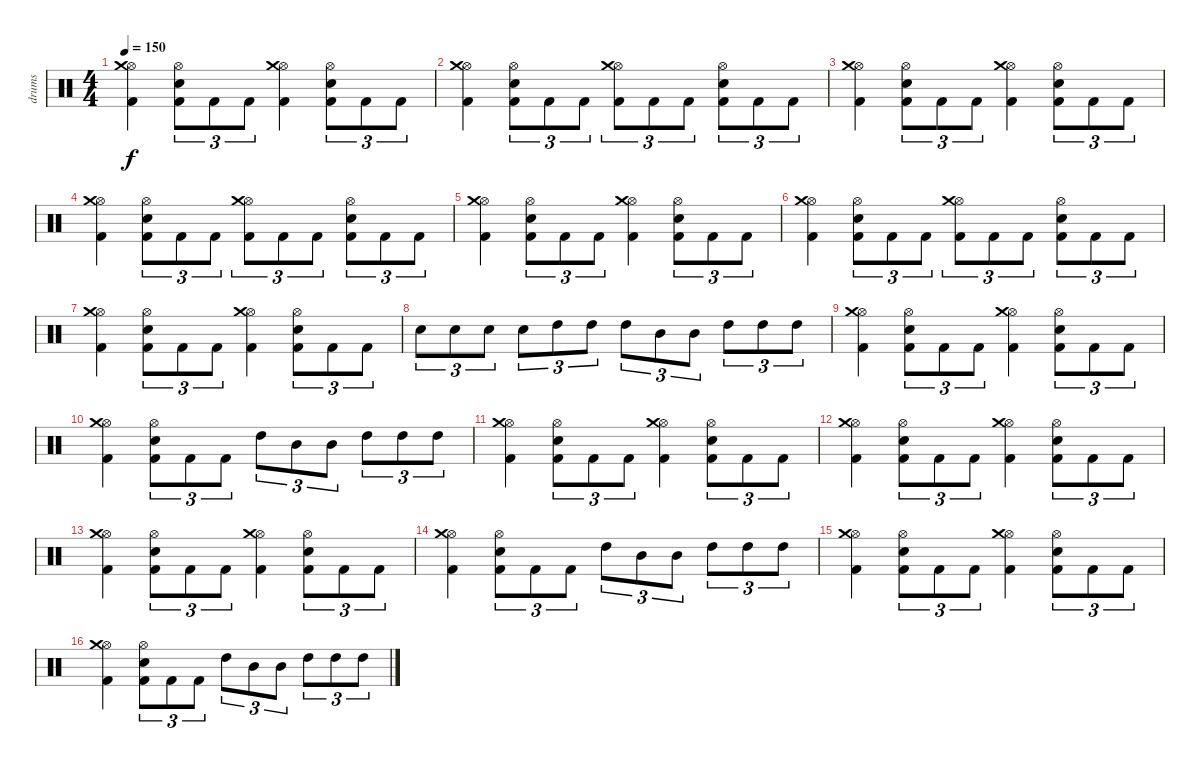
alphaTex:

\track ("drums" "drums") {instrument percussion}
\staff {score}
\articulation defaults
\ts (4 4)
\tempo 150
\clef neutral
\ks c
("Hi-Hat (open)" "Crash medium (hit)" "Kick (hit) 2").4{dy f} ("Snare (hit) 2" "Hi-Hat (open)" "Kick (hit) 2").8{tu (3 2)} "Kick (hit) 2".8{tu (3 2)} "Kick (hit) 2".8{tu (3 2)} ("Hi-Hat (open)" "Crash medium (hit)" "Kick (hit) 2").4 ("Snare (hit) 2" "Hi-Hat (open)" "Kick (hit) 2").8{tu (3 2)} "Kick (hit) 2".8{tu (3 2)} "Kick (hit) 2".8{tu (3 2)} |
("Hi-Hat (open)" "Crash medium (hit)" "Kick (hit) 2").4 ("Snare (hit) 2" "Hi-Hat (open)" "Kick (hit) 2").8{tu (3 2)} "Kick (hit) 2".8{tu (3 2)} "Kick (hit) 2".8{tu (3 2)} ("Hi-Hat (open)" "Crash medium (hit)" "Kick (hit) 2").8{tu (3 2)} "Kick (hit) 2".8{tu (3 2)} "Kick (hit) 2".8{tu (3 2)} ("Snare (hit) 2" "Hi-Hat (open)" "Kick (hit) 2").8{tu (3 2)} "Kick (hit) 2".8{tu (3 2)} "Kick (hit) 2".8{tu (3 2)} |
("Hi-Hat (open)" "Crash medium (hit)" "Kick (hit) 2").4 ("Snare (hit) 2" "Hi-Hat (open)" "Kick (hit) 2").8{tu (3 2)} "Kick (hit) 2".8{tu (3 2)} "Kick (hit) 2".8{tu (3 2)} ("Hi-Hat (open)" "Crash medium (hit)" "Kick (hit) 2").4 ("Snare (hit) 2" "Hi-Hat (open)" "Kick (hit) 2").8{tu (3 2)} "Kick (hit) 2".8{tu (3 2)} "Kick (hit) 2".8{tu (3 2)} |
("Hi-Hat (open)" "Crash medium (hit)" "Kick (hit) 2").4 ("Snare (hit) 2" "Hi-Hat (open)" "Kick (hit) 2").8{tu (3 2)} "Kick (hit) 2".8{tu (3 2)} "Kick (hit) 2".8{tu (3 2)} ("Hi-Hat (open)" "Crash medium (hit)" "Kick (hit) 2").8{tu (3 2)} "Kick (hit) 2".8{tu (3 2)} "Kick (hit) 2".8{tu (3 2)} ("Snare (hit) 2" "Hi-Hat (open)" "Kick (hit) 2").8{tu (3 2)} "Kick (hit) 2".8{tu (3 2)} "Kick (hit) 2".8{tu (3 2)} |
("Hi-Hat (open)" "Crash medium (hit)" "Kick (hit) 2").4 ("Snare (hit) 2" "Hi-Hat (open)" "Kick (hit) 2").8{tu (3 2)} "Kick (hit) 2".8{tu (3 2)} "Kick (hit) 2".8{tu (3 2)} ("Hi-Hat (open)" "Crash medium (hit)" "Kick (hit) 2").4 ("Snare (hit) 2" "Hi-Hat (open)" "Kick (hit) 2").8{tu (3 2)} "Kick (hit) 2".8{tu (3 2)} "Kick (hit) 2".8{tu (3 2)} |
("Hi-Hat (open)" "Crash medium (hit)" "Kick (hit) 2").4 ("Snare (hit) 2" "Hi-Hat (open)" "Kick (hit) 2").8{tu (3 2)} "Kick (hit) 2".8{tu (3 2)} "Kick (hit) 2".8{tu (3 2)} ("Hi-Hat (open)" "Crash medium (hit)" "Kick (hit) 2").8{tu (3 2)} "Kick (hit) 2".8{tu (3 2)} "Kick (hit) 2".8{tu (3 2)} ("Snare (hit) 2" "Hi-Hat (open)" "Kick (hit) 2").8{tu (3 2)} "Kick (hit) 2".8{tu (3 2)} "Kick (hit) 2".8{tu (3 2)} |
("Hi-Hat (open)" "Crash medium (hit)" "Kick (hit) 2").4 ("Snare (hit) 2" "Hi-Hat (open)" "Kick (hit) 2").8{tu (3 2)} "Kick (hit) 2".8{tu (3 2)} "Kick (hit) 2".8{tu (3 2)} ("Hi-Hat (open)" "Crash medium (hit)" "Kick (hit) 2").4 ("Snare (hit) 2" "Hi-Hat (open)" "Kick (hit) 2").8{tu (3 2)} "Kick (hit) 2".8{tu (3 2)} "Kick (hit) 2".8{tu (3 2)} |
"Electric Snare (hit)".8{tu (3 2)} "Electric Snare (hit)".8{tu (3 2)} "Electric Snare (hit)".8{tu (3 2)} "Electric Snare (hit)".8{tu (3 2)} "High Tom (hit)".8{tu (3 2)} "High Tom (hit)".8{tu (3 2)} "High Tom (hit)".8{tu (3 2)} "Mid Tom (hit)".8{tu (3 2)} "Mid Tom (hit)".8{tu (3 2)} "High Tom (hit)".8{tu (3 2)} "High Tom (hit)".8{tu (3 2)} "High Tom (hit)".8{tu (3 2)} |
("Hi-Hat (open)" "Crash medium (hit)" "Kick (hit) 2").4 ("Snare (hit) 2" "Hi-Hat (open)" "Kick (hit) 2").8{tu (3 2)} "Kick (hit) 2".8{tu (3 2)} "Kick (hit) 2".8{tu (3 2)} ("Hi-Hat (open)" "Crash medium (hit)" "Kick (hit) 2").4 ("Snare (hit) 2" "Hi-Hat (open)" "Kick (hit) 2").8{tu (3 2)} "Kick (hit) 2".8{tu (3 2)} "Kick (hit) 2".8{tu (3 2)} |
("Hi-Hat (open)" "Crash medium (hit)" "Kick (hit) 2").4 ("Snare (hit) 2" "Hi-Hat (open)" "Kick (hit) 2").8{tu (3 2)} "Kick (hit) 2".8{tu (3 2)} "Kick (hit) 2".8{tu (3 2)} "High Tom (hit)".8{tu (3 2)} "Mid Tom (hit)".8{tu (3 2)} "Mid Tom (hit)".8{tu (3 2)} "High Tom (hit)".8{tu (3 2)} "High Tom (hit)".8{tu (3 2)} "High Tom (hit)".8{tu (3 2)} |
("Hi-Hat (open)" "Crash medium (hit)" "Kick (hit) 2").4 ("Snare (hit) 2" "Hi-Hat (open)" "Kick (hit) 2").8{tu (3 2)} "Kick (hit) 2".8{tu (3 2)} "Kick (hit) 2".8{tu (3 2)} ("Hi-Hat (open)" "Crash medium (hit)" "Kick (hit) 2").4 ("Snare (hit) 2" "Hi-Hat (open)" "Kick (hit) 2").8{tu (3 2)} "Kick (hit) 2".8{tu (3 2)} "Kick (hit) 2".8{tu (3 2)} |
("Hi-Hat (open)" "Crash medium (hit)" "Kick (hit) 2").4 ("Snare (hit) 2" "Hi-Hat (open)" "Kick (hit) 2").8{tu (3 2)} "Kick (hit) 2".8{tu (3 2)} "Kick (hit) 2".8{tu (3 2)} ("Hi-Hat (open)" "Crash medium (hit)" "Kick (hit) 2").4 ("Snare (hit) 2" "Hi-Hat (open)" "Kick (hit) 2").8{tu (3 2)} "Kick (hit) 2".8{tu (3 2)} "Kick (hit) 2".8{tu (3 2)} |
("Hi-Hat (open)" "Crash medium (hit)" "Kick (hit) 2").4 ("Snare (hit) 2" "Hi-Hat (open)" "Kick (hit) 2").8{tu (3 2)} "Kick (hit) 2".8{tu (3 2)} "Kick (hit) 2".8{tu (3 2)} ("Hi-Hat (open)" "Crash medium (hit)" "Kick (hit) 2").4 ("Snare (hit) 2" "Hi-Hat (open)" "Kick (hit) 2").8{tu (3 2)} "Kick (hit) 2".8{tu (3 2)} "Kick (hit) 2".8{tu (3 2)} |
("Hi-Hat (open)" "Crash medium (hit)" "Kick (hit) 2").4 ("Snare (hit) 2" "Hi-Hat (open)" "Kick (hit) 2").8{tu (3 2)} "Kick (hit) 2".8{tu (3 2)} "Kick (hit) 2".8{tu (3 2)} "High Tom (hit)".8{tu (3 2)} "Mid Tom (hit)".8{tu (3 2)} "Mid Tom (hit)".8{tu (3 2)} "High Tom (hit)".8{tu (3 2)} "High Tom (hit)".8{tu (3 2)} "High Tom (hit)".8{tu (3 2)} |
("Hi-Hat (open)" "Crash medium (hit)" "Kick (hit) 2").4 ("Snare (hit) 2" "Hi-Hat (open)" "Kick (hit) 2").8{tu (3 2)} "Kick (hit) 2".8{tu (3 2)} "Kick (hit) 2".8{tu (3 2)} ("Hi-Hat (open)" "Crash medium (hit)" "Kick (hit) 2").4 ("Snare (hit) 2" "Hi-Hat (open)" "Kick (hit) 2").8{tu (3 2)} "Kick (hit) 2".8{tu (3 2)} "Kick (hit) 2".8{tu (3 2)} |
("Hi-Hat (open)" "Crash medium (hit)" "Kick (hit) 2").4 ("Snare (hit) 2" "Hi-Hat (open)" "Kick (hit) 2").8{tu (3 2)} "Kick (hit) 2".8{tu (3 2)} "Kick (hit) 2".8{tu (3 2)} "High Tom (hit)".8{tu (3 2)} "Mid Tom (hit)".8{tu (3 2)} "Mid Tom (hit)".8{tu (3 2)} "High Tom (hit)".8{tu (3 2)} "High Tom (hit)".8{tu (3 2)} "High Tom (hit)".8{tu (3 2)}
